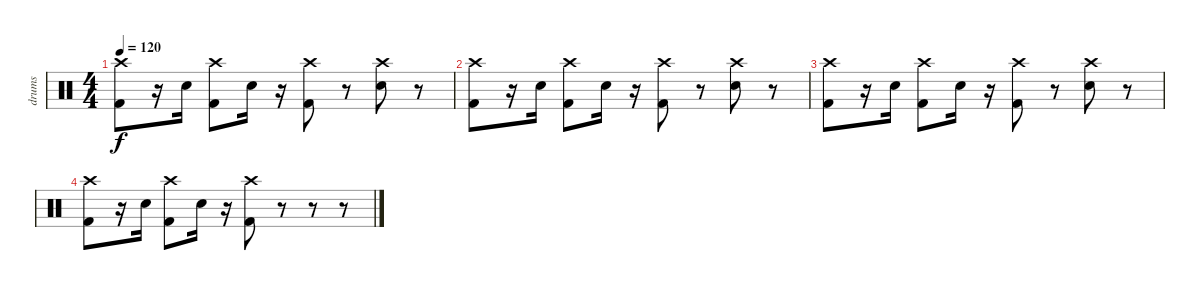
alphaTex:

\track ("drums" "drums") {instrument percussion}
\staff {score}
\articulation defaults
\ts (4 4)
\tempo 120
\clef neutral
\ks c
("Crash high (hit)" "Kick (hit) 2").8{dy f} r.16 "Snare (hit) 2".16 ("Crash high (hit)" "Kick (hit) 2").8 "Snare (hit) 2".16 r.16 ("Crash high (hit)" "Kick (hit) 2").8 r.8 ("Crash high (hit)" "Snare (hit) 2").8 r.8 |
("Crash high (hit)" "Kick (hit) 2").8 r.16 "Snare (hit) 2".16 ("Crash high (hit)" "Kick (hit) 2").8 "Snare (hit) 2".16 r.16 ("Crash high (hit)" "Kick (hit) 2").8 r.8 ("Crash high (hit)" "Snare (hit) 2").8 r.8 |
("Crash high (hit)" "Kick (hit) 2").8 r.16 "Snare (hit) 2".16 ("Crash high (hit)" "Kick (hit) 2").8 "Snare (hit) 2".16 r.16 ("Crash high (hit)" "Kick (hit) 2").8 r.8 ("Crash high (hit)" "Snare (hit) 2").8 r.8 |
("Crash high (hit)" "Kick (hit) 2").8 r.16 "Snare (hit) 2".16 ("Crash high (hit)" "Kick (hit) 2").8 "Snare (hit) 2".16 r.16 ("Crash high (hit)" "Kick (hit) 2").8 r.8 r.8 r.8
